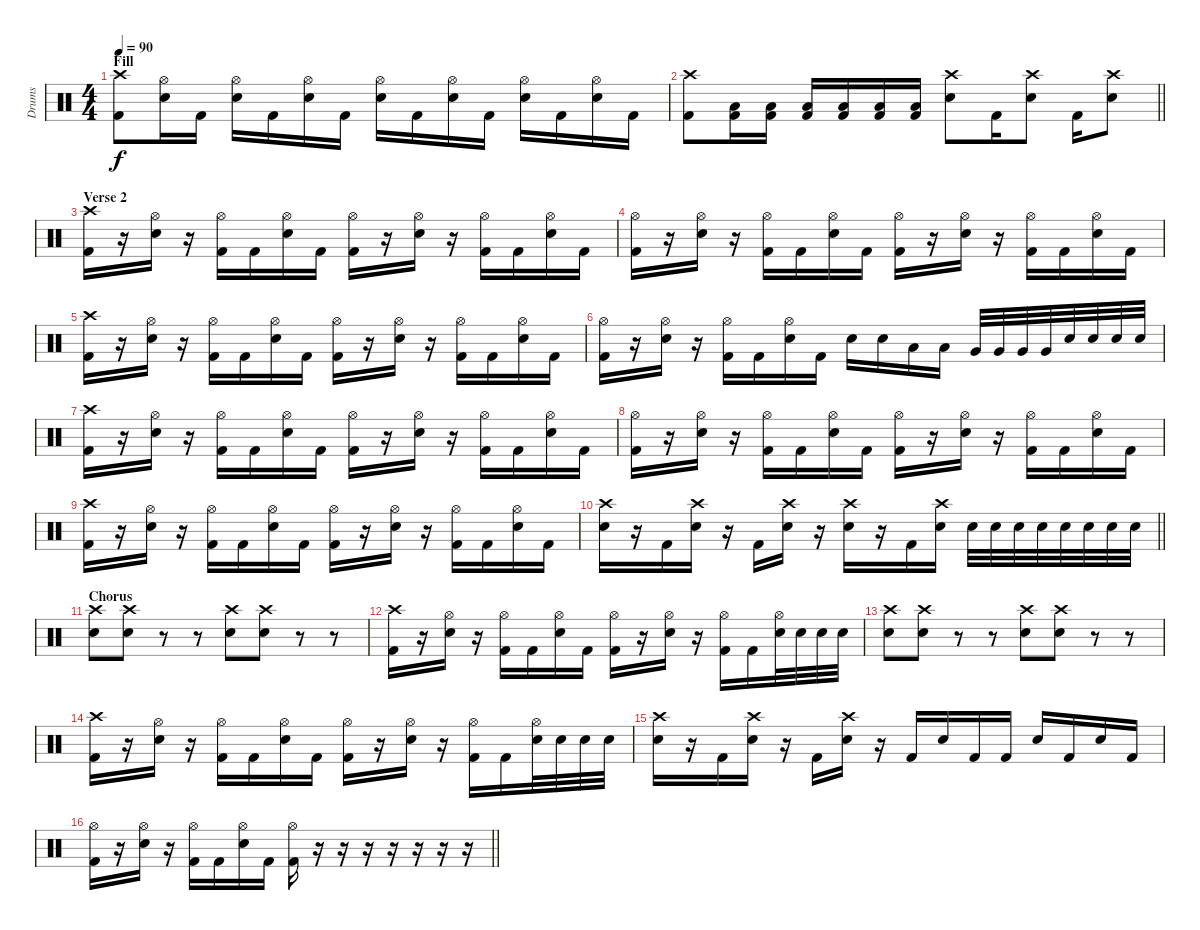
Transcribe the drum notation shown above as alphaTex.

\track ("Drums" "Drums") {instrument percussion}
\staff {score}
\articulation defaults
\ts (4 4)
\section ("" "Fill")
\tempo 90
\clef neutral
\ks c
("Crash high (hit)" "Kick (hit) 2").8{dy f} ("Hi-Hat (open)" "Snare (hit) 2").16 "Kick (hit) 2".16 ("Hi-Hat (open)" "Snare (hit) 2").16 "Kick (hit) 2".16 ("Hi-Hat (open)" "Snare (hit) 2").16 "Kick (hit) 2".16 ("Hi-Hat (open)" "Snare (hit) 2").16 "Kick (hit) 2".16 ("Hi-Hat (open)" "Snare (hit) 2").16 "Kick (hit) 2".16 ("Hi-Hat (open)" "Snare (hit) 2").16 "Kick (hit) 2".16 ("Hi-Hat (open)" "Snare (hit) 2").16 "Kick (hit) 2".16 |
\barLineRight lightlight
("Crash high (hit)" "Kick (hit) 2").8 ("Low Floor Tom (hit)" "Kick (hit) 2").16 ("Low Floor Tom (hit)" "Kick (hit) 2").16 ("Low Floor Tom (hit)" "Kick (hit) 2").16 ("Low Floor Tom (hit)" "Kick (hit) 2").16 ("Low Floor Tom (hit)" "Kick (hit) 2").16 ("Low Floor Tom (hit)" "Kick (hit) 2").16 ("Crash high (hit)" "Snare (hit) 2").8 "Kick (hit) 2".16 ("Crash high (hit)" "Snare (hit) 2").8 "Kick (hit) 2".16 ("Crash high (hit)" "Snare (hit) 2").8 |
\section ("" "Verse 2")
("Crash high (hit)" "Kick (hit) 2").16 r.16 ("Hi-Hat (open)" "Snare (hit) 2").16 r.16 ("Hi-Hat (open)" "Kick (hit) 2").16 "Kick (hit) 2".16 ("Hi-Hat (open)" "Snare (hit) 2").16 "Kick (hit) 2".16 ("Hi-Hat (open)" "Kick (hit) 2").16 r.16 ("Hi-Hat (open)" "Snare (hit) 2").16 r.16 ("Hi-Hat (open)" "Kick (hit) 2").16 "Kick (hit) 2".16 ("Hi-Hat (open)" "Snare (hit) 2").16 "Kick (hit) 2".16 |
("Hi-Hat (open)" "Kick (hit) 2").16 r.16 ("Hi-Hat (open)" "Snare (hit) 2").16 r.16 ("Hi-Hat (open)" "Kick (hit) 2").16 "Kick (hit) 2".16 ("Hi-Hat (open)" "Snare (hit) 2").16 "Kick (hit) 2".16 ("Hi-Hat (open)" "Kick (hit) 2").16 r.16 ("Hi-Hat (open)" "Snare (hit) 2").16 r.16 ("Hi-Hat (open)" "Kick (hit) 2").16 "Kick (hit) 2".16 ("Hi-Hat (open)" "Snare (hit) 2").16 "Kick (hit) 2".16 |
("Crash high (hit)" "Kick (hit) 2").16 r.16 ("Hi-Hat (open)" "Snare (hit) 2").16 r.16 ("Hi-Hat (open)" "Kick (hit) 2").16 "Kick (hit) 2".16 ("Hi-Hat (open)" "Snare (hit) 2").16 "Kick (hit) 2".16 ("Hi-Hat (open)" "Kick (hit) 2").16 r.16 ("Hi-Hat (open)" "Snare (hit) 2").16 r.16 ("Hi-Hat (open)" "Kick (hit) 2").16 "Kick (hit) 2".16 ("Hi-Hat (open)" "Snare (hit) 2").16 "Kick (hit) 2".16 |
("Hi-Hat (open)" "Kick (hit) 2").16 r.16 ("Hi-Hat (open)" "Snare (hit) 2").16 r.16 ("Hi-Hat (open)" "Kick (hit) 2").16 "Kick (hit) 2".16 ("Hi-Hat (open)" "Snare (hit) 2").16 "Kick (hit) 2".16 "Snare (hit) 2".16 "Snare (hit) 2".16 "Low Tom (hit)".16 "Low Tom (hit)".16 "Very Low Tom (hit)".32 "Very Low Tom (hit)".32 "Very Low Tom (hit)".32 "Very Low Tom (hit)".32 "Snare (hit) 2".32 "Snare (hit) 2".32 "Snare (hit) 2".32 "Snare (hit) 2".32 |
("Crash high (hit)" "Kick (hit) 2").16 r.16 ("Hi-Hat (open)" "Snare (hit) 2").16 r.16 ("Hi-Hat (open)" "Kick (hit) 2").16 "Kick (hit) 2".16 ("Hi-Hat (open)" "Snare (hit) 2").16 "Kick (hit) 2".16 ("Hi-Hat (open)" "Kick (hit) 2").16 r.16 ("Hi-Hat (open)" "Snare (hit) 2").16 r.16 ("Hi-Hat (open)" "Kick (hit) 2").16 "Kick (hit) 2".16 ("Hi-Hat (open)" "Snare (hit) 2").16 "Kick (hit) 2".16 |
("Hi-Hat (open)" "Kick (hit) 2").16 r.16 ("Hi-Hat (open)" "Snare (hit) 2").16 r.16 ("Hi-Hat (open)" "Kick (hit) 2").16 "Kick (hit) 2".16 ("Hi-Hat (open)" "Snare (hit) 2").16 "Kick (hit) 2".16 ("Hi-Hat (open)" "Kick (hit) 2").16 r.16 ("Hi-Hat (open)" "Snare (hit) 2").16 r.16 ("Hi-Hat (open)" "Kick (hit) 2").16 "Kick (hit) 2".16 ("Hi-Hat (open)" "Snare (hit) 2").16 "Kick (hit) 2".16 |
("Crash high (hit)" "Kick (hit) 2").16 r.16 ("Hi-Hat (open)" "Snare (hit) 2").16 r.16 ("Hi-Hat (open)" "Kick (hit) 2").16 "Kick (hit) 2".16 ("Hi-Hat (open)" "Snare (hit) 2").16 "Kick (hit) 2".16 ("Hi-Hat (open)" "Kick (hit) 2").16 r.16 ("Hi-Hat (open)" "Snare (hit) 2").16 r.16 ("Hi-Hat (open)" "Kick (hit) 2").16 "Kick (hit) 2".16 ("Hi-Hat (open)" "Snare (hit) 2").16 "Kick (hit) 2".16 |
\barLineRight lightlight
("Crash high (hit)" "Snare (hit) 2").16 r.16 "Kick (hit) 2".16 ("Crash high (hit)" "Snare (hit) 2").16 r.16 "Kick (hit) 2".16 ("Crash high (hit)" "Snare (hit) 2").16 r.16 ("Crash high (hit)" "Snare (hit) 2").16 r.16 "Kick (hit) 2".16 ("Crash high (hit)" "Snare (hit) 2").16 "Snare (hit) 2".32 "Snare (hit) 2".32 "Snare (hit) 2".32 "Snare (hit) 2".32 "Snare (hit) 2".32 "Snare (hit) 2".32 "Snare (hit) 2".32 "Snare (hit) 2".32 |
\section ("" "Chorus")
("Crash high (hit)" "Snare (hit) 2").8 ("Crash high (hit)" "Snare (hit) 2").8 r.8 r.8 ("Crash high (hit)" "Snare (hit) 2").8 ("Crash high (hit)" "Snare (hit) 2").8 r.8 r.8 |
("Crash high (hit)" "Kick (hit) 2").16 r.16 ("Hi-Hat (open)" "Snare (hit) 2").16 r.16 ("Hi-Hat (open)" "Kick (hit) 2").16 "Kick (hit) 2".16 ("Hi-Hat (open)" "Snare (hit) 2").16 "Kick (hit) 2".16 ("Hi-Hat (open)" "Kick (hit) 2").16 r.16 ("Hi-Hat (open)" "Snare (hit) 2").16 r.16 ("Hi-Hat (open)" "Kick (hit) 2").16 "Kick (hit) 2".16 ("Hi-Hat (open)" "Snare (hit) 2").32 "Snare (hit) 2".32 "Snare (hit) 2".32 "Snare (hit) 2".32 |
("Crash high (hit)" "Snare (hit) 2").8 ("Crash high (hit)" "Snare (hit) 2").8 r.8 r.8 ("Crash high (hit)" "Snare (hit) 2").8 ("Crash high (hit)" "Snare (hit) 2").8 r.8 r.8 |
("Crash high (hit)" "Kick (hit) 2").16 r.16 ("Hi-Hat (open)" "Snare (hit) 2").16 r.16 ("Hi-Hat (open)" "Kick (hit) 2").16 "Kick (hit) 2".16 ("Hi-Hat (open)" "Snare (hit) 2").16 "Kick (hit) 2".16 ("Hi-Hat (open)" "Kick (hit) 2").16 r.16 ("Hi-Hat (open)" "Snare (hit) 2").16 r.16 ("Hi-Hat (open)" "Kick (hit) 2").16 "Kick (hit) 2".16 ("Hi-Hat (open)" "Snare (hit) 2").32 "Snare (hit) 2".32 "Snare (hit) 2".32 "Snare (hit) 2".32 |
("Crash high (hit)" "Snare (hit) 2").16 r.16 "Kick (hit) 2".16 ("Crash high (hit)" "Snare (hit) 2").16 r.16 "Kick (hit) 2".16 ("Crash high (hit)" "Snare (hit) 2").16 r.16 "Kick (hit) 2".16 "Snare (hit) 2".16 "Kick (hit) 2".16 "Kick (hit) 2".16 "Snare (hit) 2".16 "Kick (hit) 2".16 "Snare (hit) 2".16 "Kick (hit) 2".16 |
\barLineRight lightlight
("Hi-Hat (open)" "Kick (hit) 2").16 r.16 ("Hi-Hat (open)" "Snare (hit) 2").16 r.16 ("Hi-Hat (open)" "Kick (hit) 2").16 "Kick (hit) 2".16 ("Hi-Hat (open)" "Snare (hit) 2").16 "Kick (hit) 2".16 ("Hi-Hat (open)" "Kick (hit) 2").16 r.16 r.16 r.16 r.16 r.16 r.16 r.16
